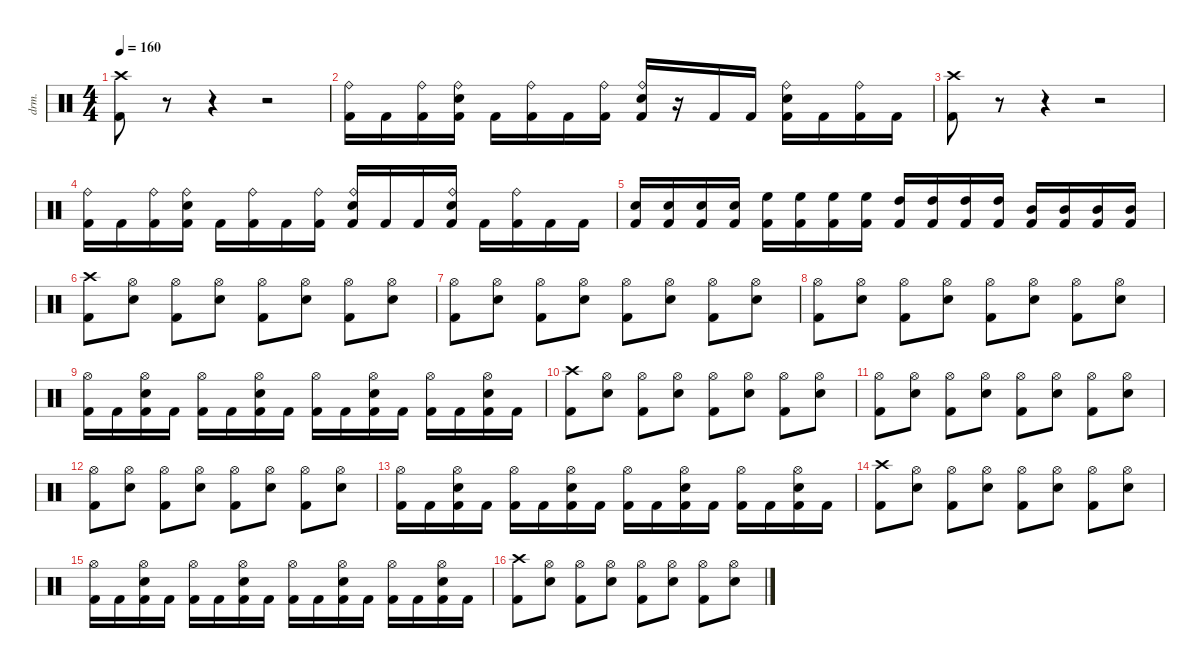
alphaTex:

\defaultSystemsLayout 4
\hideDynamics
\bracketExtendMode nobrackets
\track ("Menza" "drm.") {instrument percussion}
\staff {score}
\articulation defaults
\ts (4 4)
\tempo 160
\clef neutral
\ks c
("Crash high (hit)" "Kick (hit) 2").8{dy f} r.8 r.4 r.2 |
("Ride (bell)" "Kick (hit) 2").16 "Kick (hit) 2".16 ("Ride (bell)" "Kick (hit) 2").16 ("Ride (bell)" "Snare (hit) 2" "Kick (hit) 2").16 "Kick (hit) 2".16 ("Ride (bell)" "Kick (hit) 2").16 "Kick (hit) 2".16 ("Ride (bell)" "Kick (hit) 2").16 ("Ride (bell)" "Snare (hit) 2" "Kick (hit) 2").16 r.16 "Kick (hit) 2".16 "Kick (hit) 2".16 ("Ride (bell)" "Snare (hit) 2" "Kick (hit) 2").16 "Kick (hit) 2".16 ("Ride (bell)" "Kick (hit) 2").16 "Kick (hit) 2".16 |
("Crash high (hit)" "Kick (hit) 2").8 r.8 r.4 r.2 |
("Ride (bell)" "Kick (hit) 2").16 "Kick (hit) 2".16 ("Ride (bell)" "Kick (hit) 2").16 ("Ride (bell)" "Snare (hit) 2" "Kick (hit) 2").16 "Kick (hit) 2".16 ("Ride (bell)" "Kick (hit) 2").16 "Kick (hit) 2".16 ("Ride (bell)" "Kick (hit) 2").16 ("Ride (bell)" "Snare (hit) 2" "Kick (hit) 2").16 "Kick (hit) 2".16 "Kick (hit) 2".16 ("Ride (bell)" "Snare (hit) 2" "Kick (hit) 2").16 "Kick (hit) 2".16 ("Ride (bell)" "Kick (hit) 2").16 "Kick (hit) 2".16 "Kick (hit) 2".16 |
("Snare (hit) 2" "Kick (hit) 2").16 ("Snare (hit) 2" "Kick (hit) 2").16 ("Snare (hit) 2" "Kick (hit) 2").16 ("Snare (hit) 2" "Kick (hit) 2").16 ("High Floor Tom (hit)" "Kick (hit) 2").16 ("High Floor Tom (hit)" "Kick (hit) 2").16 ("High Floor Tom (hit)" "Kick (hit) 2").16 ("High Floor Tom (hit)" "Kick (hit) 2").16 ("High Tom (hit)" "Kick (hit) 2").16 ("High Tom (hit)" "Kick (hit) 2").16 ("High Tom (hit)" "Kick (hit) 2").16 ("High Tom (hit)" "Kick (hit) 2").16 ("Mid Tom (hit)" "Kick (hit) 2").16 ("Mid Tom (hit)" "Kick (hit) 2").16 ("Mid Tom (hit)" "Kick (hit) 2").16 ("Mid Tom (hit)" "Kick (hit) 2").16 |
("Crash high (hit)" "Kick (hit) 2").8 ("Hi-Hat (open)" "Snare (hit) 2").8 ("Hi-Hat (open)" "Kick (hit) 2").8 ("Hi-Hat (open)" "Snare (hit) 2").8 ("Hi-Hat (open)" "Kick (hit) 2").8 ("Hi-Hat (open)" "Snare (hit) 2").8 ("Hi-Hat (open)" "Kick (hit) 2").8 ("Hi-Hat (open)" "Snare (hit) 2").8 |
("Hi-Hat (open)" "Kick (hit) 2").8 ("Hi-Hat (open)" "Snare (hit) 2").8 ("Hi-Hat (open)" "Kick (hit) 2").8 ("Hi-Hat (open)" "Snare (hit) 2").8 ("Hi-Hat (open)" "Kick (hit) 2").8 ("Hi-Hat (open)" "Snare (hit) 2").8 ("Hi-Hat (open)" "Kick (hit) 2").8 ("Hi-Hat (open)" "Snare (hit) 2").8 |
("Hi-Hat (open)" "Kick (hit) 2").8 ("Hi-Hat (open)" "Snare (hit) 2").8 ("Hi-Hat (open)" "Kick (hit) 2").8 ("Hi-Hat (open)" "Snare (hit) 2").8 ("Hi-Hat (open)" "Kick (hit) 2").8 ("Hi-Hat (open)" "Snare (hit) 2").8 ("Hi-Hat (open)" "Kick (hit) 2").8 ("Hi-Hat (open)" "Snare (hit) 2").8 |
("Hi-Hat (open)" "Kick (hit) 2").16 "Kick (hit) 2".16 ("Hi-Hat (open)" "Snare (hit) 2" "Kick (hit) 2").16 "Kick (hit) 2".16 ("Hi-Hat (open)" "Kick (hit) 2").16 "Kick (hit) 2".16 ("Hi-Hat (open)" "Snare (hit) 2" "Kick (hit) 2").16 "Kick (hit) 2".16 ("Hi-Hat (open)" "Kick (hit) 2").16 "Kick (hit) 2".16 ("Hi-Hat (open)" "Snare (hit) 2" "Kick (hit) 2").16 "Kick (hit) 2".16 ("Hi-Hat (open)" "Kick (hit) 2").16 "Kick (hit) 2".16 ("Hi-Hat (open)" "Snare (hit) 2" "Kick (hit) 2").16 "Kick (hit) 2".16 |
("Crash high (hit)" "Kick (hit) 2").8 ("Hi-Hat (open)" "Snare (hit) 2").8 ("Hi-Hat (open)" "Kick (hit) 2").8 ("Hi-Hat (open)" "Snare (hit) 2").8 ("Hi-Hat (open)" "Kick (hit) 2").8 ("Hi-Hat (open)" "Snare (hit) 2").8 ("Hi-Hat (open)" "Kick (hit) 2").8 ("Hi-Hat (open)" "Snare (hit) 2").8 |
("Hi-Hat (open)" "Kick (hit) 2").8 ("Hi-Hat (open)" "Snare (hit) 2").8 ("Hi-Hat (open)" "Kick (hit) 2").8 ("Hi-Hat (open)" "Snare (hit) 2").8 ("Hi-Hat (open)" "Kick (hit) 2").8 ("Hi-Hat (open)" "Snare (hit) 2").8 ("Hi-Hat (open)" "Kick (hit) 2").8 ("Hi-Hat (open)" "Snare (hit) 2").8 |
("Hi-Hat (open)" "Kick (hit) 2").8 ("Hi-Hat (open)" "Snare (hit) 2").8 ("Hi-Hat (open)" "Kick (hit) 2").8 ("Hi-Hat (open)" "Snare (hit) 2").8 ("Hi-Hat (open)" "Kick (hit) 2").8 ("Hi-Hat (open)" "Snare (hit) 2").8 ("Hi-Hat (open)" "Kick (hit) 2").8 ("Hi-Hat (open)" "Snare (hit) 2").8 |
("Hi-Hat (open)" "Kick (hit) 2").16 "Kick (hit) 2".16 ("Hi-Hat (open)" "Snare (hit) 2" "Kick (hit) 2").16 "Kick (hit) 2".16 ("Hi-Hat (open)" "Kick (hit) 2").16 "Kick (hit) 2".16 ("Hi-Hat (open)" "Snare (hit) 2" "Kick (hit) 2").16 "Kick (hit) 2".16 ("Hi-Hat (open)" "Kick (hit) 2").16 "Kick (hit) 2".16 ("Hi-Hat (open)" "Snare (hit) 2" "Kick (hit) 2").16 "Kick (hit) 2".16 ("Hi-Hat (open)" "Kick (hit) 2").16 "Kick (hit) 2".16 ("Hi-Hat (open)" "Snare (hit) 2" "Kick (hit) 2").16 "Kick (hit) 2".16 |
("Crash high (hit)" "Kick (hit) 2").8 ("Hi-Hat (open)" "Snare (hit) 2").8 ("Hi-Hat (open)" "Kick (hit) 2").8 ("Hi-Hat (open)" "Snare (hit) 2").8 ("Hi-Hat (open)" "Kick (hit) 2").8 ("Hi-Hat (open)" "Snare (hit) 2").8 ("Hi-Hat (open)" "Kick (hit) 2").8 ("Hi-Hat (open)" "Snare (hit) 2").8 |
("Hi-Hat (open)" "Kick (hit) 2").16 "Kick (hit) 2".16 ("Hi-Hat (open)" "Snare (hit) 2" "Kick (hit) 2").16 "Kick (hit) 2".16 ("Hi-Hat (open)" "Kick (hit) 2").16 "Kick (hit) 2".16 ("Hi-Hat (open)" "Snare (hit) 2" "Kick (hit) 2").16 "Kick (hit) 2".16 ("Hi-Hat (open)" "Kick (hit) 2").16 "Kick (hit) 2".16 ("Hi-Hat (open)" "Snare (hit) 2" "Kick (hit) 2").16 "Kick (hit) 2".16 ("Hi-Hat (open)" "Kick (hit) 2").16 "Kick (hit) 2".16 ("Hi-Hat (open)" "Snare (hit) 2" "Kick (hit) 2").16 "Kick (hit) 2".16 |
("Crash high (hit)" "Kick (hit) 2").8 ("Hi-Hat (open)" "Snare (hit) 2").8 ("Hi-Hat (open)" "Kick (hit) 2").8 ("Hi-Hat (open)" "Snare (hit) 2").8 ("Hi-Hat (open)" "Kick (hit) 2").8 ("Hi-Hat (open)" "Snare (hit) 2").8 ("Hi-Hat (open)" "Kick (hit) 2").8 ("Hi-Hat (open)" "Snare (hit) 2").8
